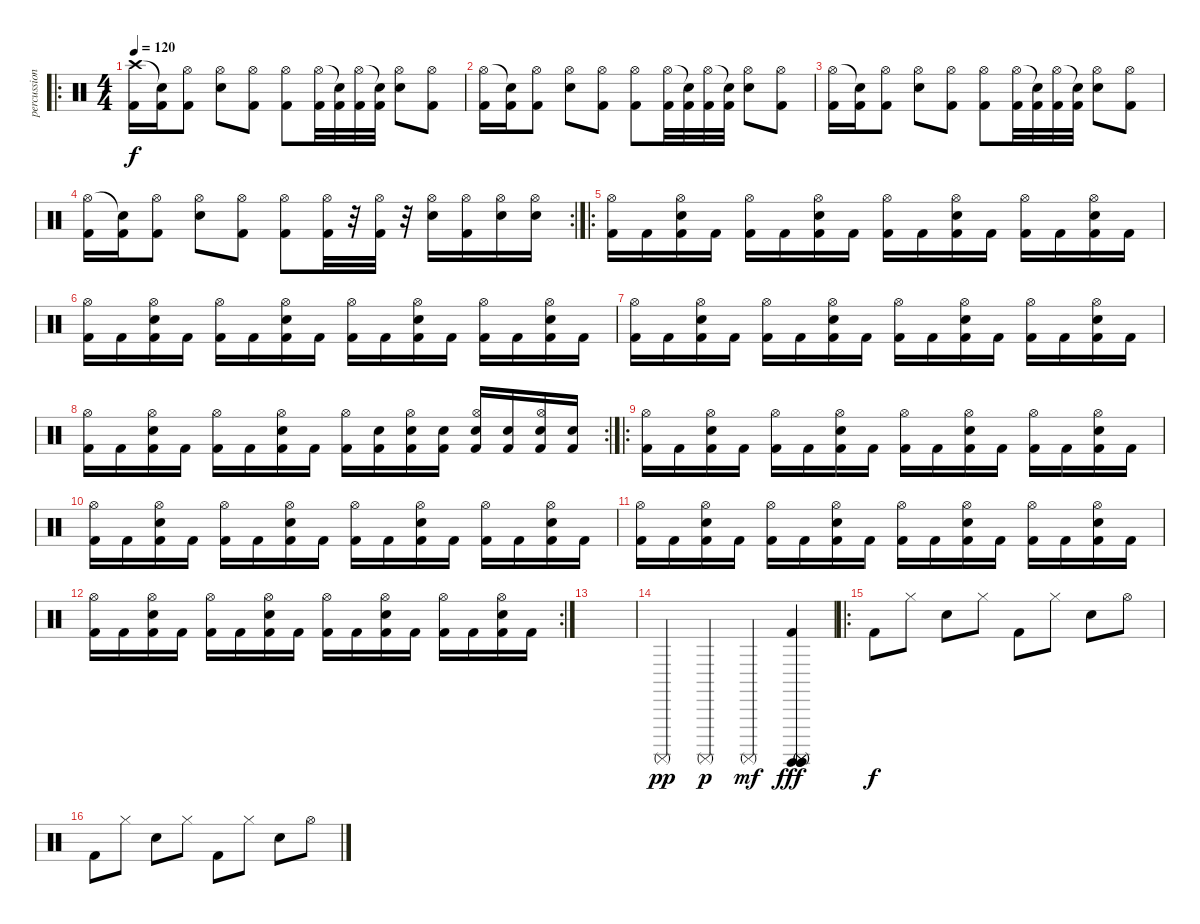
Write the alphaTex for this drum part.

\track ("percussions" "percussion") {instrument percussion}
\staff {score}
\articulation defaults
\ro
\ts (4 4)
\tempo 120
\clef neutral
\ks c
("Crash high (hit)" "Kick (hit) 2").16{dy f} ("Snare (hit)"{t} "Kick (hit) 2").16 ("Hi-Hat (open)" "Kick (hit) 2").8 ("Hi-Hat (open)" "Electric Snare (hit)").8 ("Hi-Hat (open)" "Kick (hit) 2").8 ("Hi-Hat (open)" "Kick (hit) 2").8 ("Hi-Hat (open)" "Kick (hit) 2").32 ("Snare (hit)"{t} "Kick (hit) 2").32 ("Hi-Hat (open)" "Kick (hit) 2").32 ("Snare (hit)"{t} "Kick (hit) 2").32 ("Hi-Hat (open)" "Electric Snare (hit)").8 ("Hi-Hat (open)" "Kick (hit) 2").8 |
("Hi-Hat (open)" "Kick (hit) 2").16 ("Snare (hit)"{t} "Kick (hit) 2").16 ("Hi-Hat (open)" "Kick (hit) 2").8 ("Hi-Hat (open)" "Electric Snare (hit)").8 ("Hi-Hat (open)" "Kick (hit) 2").8 ("Hi-Hat (open)" "Kick (hit) 2").8 ("Hi-Hat (open)" "Kick (hit) 2").32 ("Snare (hit)"{t} "Kick (hit) 2").32 ("Hi-Hat (open)" "Kick (hit) 2").32 ("Snare (hit)"{t} "Kick (hit) 2").32 ("Hi-Hat (open)" "Electric Snare (hit)").8 ("Hi-Hat (open)" "Kick (hit) 2").8 |
("Hi-Hat (open)" "Kick (hit) 2").16 ("Snare (hit)"{t} "Kick (hit) 2").16 ("Hi-Hat (open)" "Kick (hit) 2").8 ("Hi-Hat (open)" "Electric Snare (hit)").8 ("Hi-Hat (open)" "Kick (hit) 2").8 ("Hi-Hat (open)" "Kick (hit) 2").8 ("Hi-Hat (open)" "Kick (hit) 2").32 ("Snare (hit)"{t} "Kick (hit) 2").32 ("Hi-Hat (open)" "Kick (hit) 2").32 ("Snare (hit)"{t} "Kick (hit) 2").32 ("Hi-Hat (open)" "Electric Snare (hit)").8 ("Hi-Hat (open)" "Kick (hit) 2").8 |
\rc 2
("Hi-Hat (open)" "Kick (hit) 2").16 ("Snare (hit)"{t} "Kick (hit) 2").16 ("Hi-Hat (open)" "Kick (hit) 2").8 ("Hi-Hat (open)" "Electric Snare (hit)").8 ("Hi-Hat (open)" "Kick (hit) 2").8 ("Hi-Hat (open)" "Kick (hit) 2").8 ("Hi-Hat (open)" "Kick (hit) 2").32 r.32 ("Hi-Hat (open)" "Kick (hit) 2").32 r.32 ("Hi-Hat (open)" "Electric Snare (hit)").16 ("Hi-Hat (open)" "Kick (hit) 2").16 ("Hi-Hat (open)" "Electric Snare (hit)").16 ("Hi-Hat (open)" "Electric Snare (hit)").16 |
\ro
("Hi-Hat (open)" "Kick (hit) 2").16 "Kick (hit) 2".16 ("Hi-Hat (open)" "Electric Snare (hit)" "Kick (hit) 2").16 "Kick (hit) 2".16 ("Hi-Hat (open)" "Kick (hit) 2").16 "Kick (hit) 2".16 ("Hi-Hat (open)" "Electric Snare (hit)" "Kick (hit) 2").16 "Kick (hit) 2".16 ("Hi-Hat (open)" "Kick (hit) 2").16 "Kick (hit) 2".16 ("Hi-Hat (open)" "Electric Snare (hit)" "Kick (hit) 2").16 "Kick (hit) 2".16 ("Hi-Hat (open)" "Kick (hit) 2").16 "Kick (hit) 2".16 ("Hi-Hat (open)" "Electric Snare (hit)" "Kick (hit) 2").16 "Kick (hit) 2".16 |
("Hi-Hat (open)" "Kick (hit) 2").16 "Kick (hit) 2".16 ("Hi-Hat (open)" "Electric Snare (hit)" "Kick (hit) 2").16 "Kick (hit) 2".16 ("Hi-Hat (open)" "Kick (hit) 2").16 "Kick (hit) 2".16 ("Hi-Hat (open)" "Electric Snare (hit)" "Kick (hit) 2").16 "Kick (hit) 2".16 ("Hi-Hat (open)" "Kick (hit) 2").16 "Kick (hit) 2".16 ("Hi-Hat (open)" "Electric Snare (hit)" "Kick (hit) 2").16 "Kick (hit) 2".16 ("Hi-Hat (open)" "Kick (hit) 2").16 "Kick (hit) 2".16 ("Hi-Hat (open)" "Electric Snare (hit)" "Kick (hit) 2").16 "Kick (hit) 2".16 |
("Hi-Hat (open)" "Kick (hit) 2").16 "Kick (hit) 2".16 ("Hi-Hat (open)" "Electric Snare (hit)" "Kick (hit) 2").16 "Kick (hit) 2".16 ("Hi-Hat (open)" "Kick (hit) 2").16 "Kick (hit) 2".16 ("Hi-Hat (open)" "Electric Snare (hit)" "Kick (hit) 2").16 "Kick (hit) 2".16 ("Hi-Hat (open)" "Kick (hit) 2").16 "Kick (hit) 2".16 ("Hi-Hat (open)" "Electric Snare (hit)" "Kick (hit) 2").16 "Kick (hit) 2".16 ("Hi-Hat (open)" "Kick (hit) 2").16 "Kick (hit) 2".16 ("Hi-Hat (open)" "Electric Snare (hit)" "Kick (hit) 2").16 "Kick (hit) 2".16 |
\rc 2
("Hi-Hat (open)" "Kick (hit) 2").16 "Kick (hit) 2".16 ("Hi-Hat (open)" "Electric Snare (hit)" "Kick (hit) 2").16 "Kick (hit) 2".16 ("Hi-Hat (open)" "Kick (hit) 2").16 "Kick (hit) 2".16 ("Hi-Hat (open)" "Electric Snare (hit)" "Kick (hit) 2").16 "Kick (hit) 2".16 ("Hi-Hat (open)" "Kick (hit) 2").16 ("Electric Snare (hit)" "Kick (hit) 2").16 ("Hi-Hat (open)" "Electric Snare (hit)" "Kick (hit) 2").16 ("Electric Snare (hit)" "Kick (hit) 2").16 ("Hi-Hat (open)" "Electric Snare (hit)" "Kick (hit) 2").16 ("Electric Snare (hit)" "Kick (hit) 2").16 ("Hi-Hat (open)" "Electric Snare (hit)" "Kick (hit) 2").16 ("Electric Snare (hit)" "Kick (hit) 2").16 |
\ro
("Hi-Hat (open)" "Kick (hit) 2").16 "Kick (hit) 2".16 ("Hi-Hat (open)" "Electric Snare (hit)" "Kick (hit) 2").16 "Kick (hit) 2".16 ("Hi-Hat (open)" "Kick (hit) 2").16 "Kick (hit) 2".16 ("Hi-Hat (open)" "Electric Snare (hit)" "Kick (hit) 2").16 "Kick (hit) 2".16 ("Hi-Hat (open)" "Kick (hit) 2").16 "Kick (hit) 2".16 ("Hi-Hat (open)" "Electric Snare (hit)" "Kick (hit) 2").16 "Kick (hit) 2".16 ("Hi-Hat (open)" "Kick (hit) 2").16 "Kick (hit) 2".16 ("Hi-Hat (open)" "Electric Snare (hit)" "Kick (hit) 2").16 "Kick (hit) 2".16 |
("Hi-Hat (open)" "Kick (hit) 2").16 "Kick (hit) 2".16 ("Hi-Hat (open)" "Electric Snare (hit)" "Kick (hit) 2").16 "Kick (hit) 2".16 ("Hi-Hat (open)" "Kick (hit) 2").16 "Kick (hit) 2".16 ("Hi-Hat (open)" "Electric Snare (hit)" "Kick (hit) 2").16 "Kick (hit) 2".16 ("Hi-Hat (open)" "Kick (hit) 2").16 "Kick (hit) 2".16 ("Hi-Hat (open)" "Electric Snare (hit)" "Kick (hit) 2").16 "Kick (hit) 2".16 ("Hi-Hat (open)" "Kick (hit) 2").16 "Kick (hit) 2".16 ("Hi-Hat (open)" "Electric Snare (hit)" "Kick (hit) 2").16 "Kick (hit) 2".16 |
("Hi-Hat (open)" "Kick (hit) 2").16 "Kick (hit) 2".16 ("Hi-Hat (open)" "Electric Snare (hit)" "Kick (hit) 2").16 "Kick (hit) 2".16 ("Hi-Hat (open)" "Kick (hit) 2").16 "Kick (hit) 2".16 ("Hi-Hat (open)" "Electric Snare (hit)" "Kick (hit) 2").16 "Kick (hit) 2".16 ("Hi-Hat (open)" "Kick (hit) 2").16 "Kick (hit) 2".16 ("Hi-Hat (open)" "Electric Snare (hit)" "Kick (hit) 2").16 "Kick (hit) 2".16 ("Hi-Hat (open)" "Kick (hit) 2").16 "Kick (hit) 2".16 ("Hi-Hat (open)" "Electric Snare (hit)" "Kick (hit) 2").16 "Kick (hit) 2".16 |
\rc 2
("Hi-Hat (open)" "Kick (hit) 2").16 "Kick (hit) 2".16 ("Hi-Hat (open)" "Electric Snare (hit)" "Kick (hit) 2").16 "Kick (hit) 2".16 ("Hi-Hat (open)" "Kick (hit) 2").16 "Kick (hit) 2".16 ("Hi-Hat (open)" "Electric Snare (hit)" "Kick (hit) 2").16 "Kick (hit) 2".16 ("Hi-Hat (open)" "Kick (hit) 2").16 "Kick (hit) 2".16 ("Hi-Hat (open)" "Electric Snare (hit)" "Kick (hit) 2").16 "Kick (hit) 2".16 ("Hi-Hat (open)" "Kick (hit) 2").16 "Kick (hit) 2".16 ("Hi-Hat (open)" "Electric Snare (hit)" "Kick (hit) 2").16 "Kick (hit) 2".16 |
|
"Surdo (mute)".4{dy pp} "Surdo (mute)".4{dy p} "Surdo (mute)".4{dy mf} ("Kick (hit) 2" "Surdo (hit)" "Surdo (hit)" "Surdo (hit)" "Surdo (mute)" "Surdo (mute)").4{dy fff} |
\ro "Kick (hit) 2".8{dy f} "Hi-Hat (closed)".8 "Electric Snare (hit)".8 "Hi-Hat (closed)".8 "Kick (hit) 2".8 "Hi-Hat (closed)".8 "Electric Snare (hit)".8 "Hi-Hat (open)".8
|
"Kick (hit) 2".8 "Hi-Hat (closed)".8 "Electric Snare (hit)".8 "Hi-Hat (closed)".8 "Kick (hit) 2".8 "Hi-Hat (closed)".8 "Electric Snare (hit)".8 "Hi-Hat (open)".8
